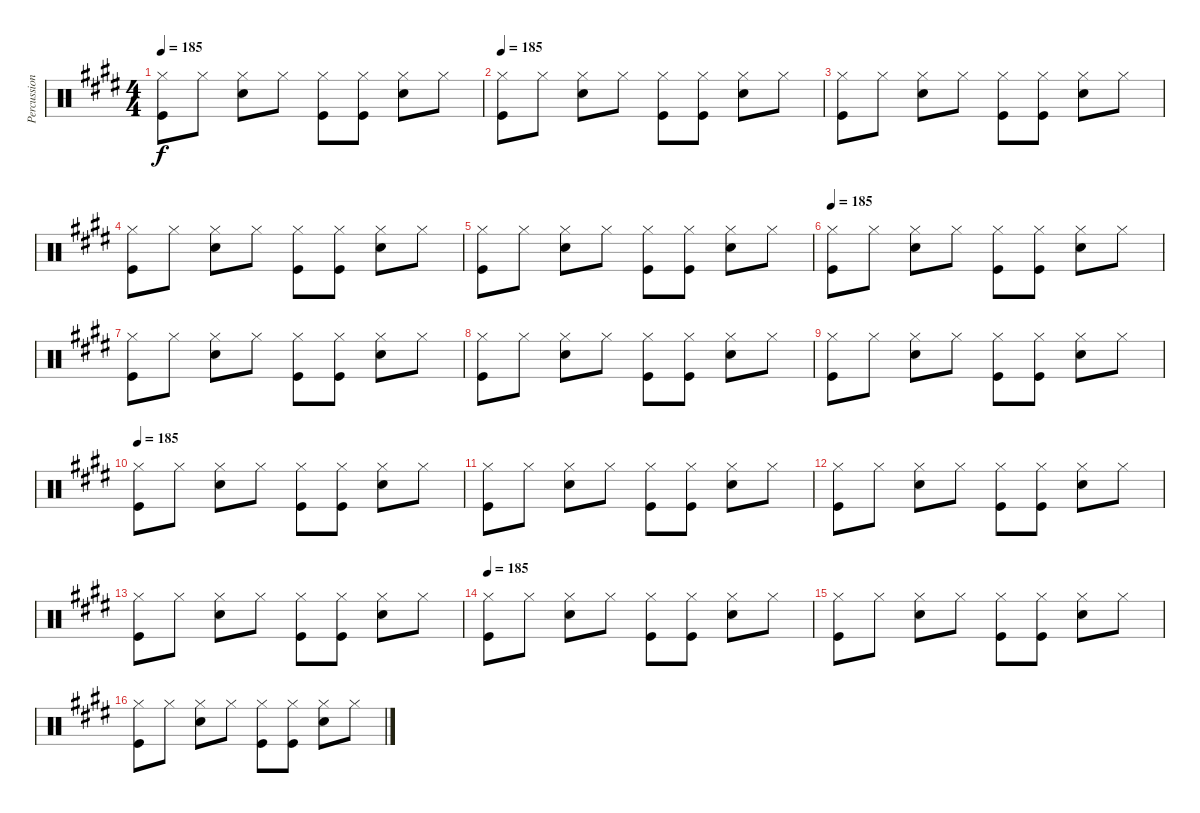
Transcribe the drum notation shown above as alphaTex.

\track ("Percussion" "Percussion") {instrument percussion}
\staff {score}
\articulation defaults
\ts (4 4)
\tempo 185
\clef neutral
\ks e
("Hi-Hat (closed)" "Kick (hit)").8{dy f} "Hi-Hat (closed)".8 ("Hi-Hat (closed)" "Snare (hit) 2").8 "Hi-Hat (closed)".8 ("Hi-Hat (closed)" "Kick (hit)").8 ("Hi-Hat (closed)" "Kick (hit)").8 ("Hi-Hat (closed)" "Snare (hit) 2").8 "Hi-Hat (closed)".8 |
\tempo 185
("Hi-Hat (closed)" "Kick (hit)").8 "Hi-Hat (closed)".8 ("Hi-Hat (closed)" "Snare (hit) 2").8 "Hi-Hat (closed)".8 ("Hi-Hat (closed)" "Kick (hit)").8 ("Hi-Hat (closed)" "Kick (hit)").8 ("Hi-Hat (closed)" "Snare (hit) 2").8 "Hi-Hat (closed)".8 |
("Hi-Hat (closed)" "Kick (hit)").8 "Hi-Hat (closed)".8 ("Hi-Hat (closed)" "Snare (hit) 2").8 "Hi-Hat (closed)".8 ("Hi-Hat (closed)" "Kick (hit)").8 ("Hi-Hat (closed)" "Kick (hit)").8 ("Hi-Hat (closed)" "Snare (hit) 2").8 "Hi-Hat (closed)".8 |
("Hi-Hat (closed)" "Kick (hit)").8 "Hi-Hat (closed)".8 ("Hi-Hat (closed)" "Snare (hit) 2").8 "Hi-Hat (closed)".8 ("Hi-Hat (closed)" "Kick (hit)").8 ("Hi-Hat (closed)" "Kick (hit)").8 ("Hi-Hat (closed)" "Snare (hit) 2").8 "Hi-Hat (closed)".8 |
("Hi-Hat (closed)" "Kick (hit)").8 "Hi-Hat (closed)".8 ("Hi-Hat (closed)" "Snare (hit) 2").8 "Hi-Hat (closed)".8 ("Hi-Hat (closed)" "Kick (hit)").8 ("Hi-Hat (closed)" "Kick (hit)").8 ("Hi-Hat (closed)" "Snare (hit) 2").8 "Hi-Hat (closed)".8 |
\tempo 185
("Hi-Hat (closed)" "Kick (hit)").8 "Hi-Hat (closed)".8 ("Hi-Hat (closed)" "Snare (hit) 2").8 "Hi-Hat (closed)".8 ("Hi-Hat (closed)" "Kick (hit)").8 ("Hi-Hat (closed)" "Kick (hit)").8 ("Hi-Hat (closed)" "Snare (hit) 2").8 "Hi-Hat (closed)".8 |
("Hi-Hat (closed)" "Kick (hit)").8 "Hi-Hat (closed)".8 ("Hi-Hat (closed)" "Snare (hit) 2").8 "Hi-Hat (closed)".8 ("Hi-Hat (closed)" "Kick (hit)").8 ("Hi-Hat (closed)" "Kick (hit)").8 ("Hi-Hat (closed)" "Snare (hit) 2").8 "Hi-Hat (closed)".8 |
("Hi-Hat (closed)" "Kick (hit)").8 "Hi-Hat (closed)".8 ("Hi-Hat (closed)" "Snare (hit) 2").8 "Hi-Hat (closed)".8 ("Hi-Hat (closed)" "Kick (hit)").8 ("Hi-Hat (closed)" "Kick (hit)").8 ("Hi-Hat (closed)" "Snare (hit) 2").8 "Hi-Hat (closed)".8 |
("Hi-Hat (closed)" "Kick (hit)").8 "Hi-Hat (closed)".8 ("Hi-Hat (closed)" "Snare (hit) 2").8 "Hi-Hat (closed)".8 ("Hi-Hat (closed)" "Kick (hit)").8 ("Hi-Hat (closed)" "Kick (hit)").8 ("Hi-Hat (closed)" "Snare (hit) 2").8 "Hi-Hat (closed)".8 |
\tempo 185
("Hi-Hat (closed)" "Kick (hit)").8 "Hi-Hat (closed)".8 ("Hi-Hat (closed)" "Snare (hit) 2").8 "Hi-Hat (closed)".8 ("Hi-Hat (closed)" "Kick (hit)").8 ("Hi-Hat (closed)" "Kick (hit)").8 ("Hi-Hat (closed)" "Snare (hit) 2").8 "Hi-Hat (closed)".8 |
("Hi-Hat (closed)" "Kick (hit)").8 "Hi-Hat (closed)".8 ("Hi-Hat (closed)" "Snare (hit) 2").8 "Hi-Hat (closed)".8 ("Hi-Hat (closed)" "Kick (hit)").8 ("Hi-Hat (closed)" "Kick (hit)").8 ("Hi-Hat (closed)" "Snare (hit) 2").8 "Hi-Hat (closed)".8 |
("Hi-Hat (closed)" "Kick (hit)").8 "Hi-Hat (closed)".8 ("Hi-Hat (closed)" "Snare (hit) 2").8 "Hi-Hat (closed)".8 ("Hi-Hat (closed)" "Kick (hit)").8 ("Hi-Hat (closed)" "Kick (hit)").8 ("Hi-Hat (closed)" "Snare (hit) 2").8 "Hi-Hat (closed)".8 |
("Hi-Hat (closed)" "Kick (hit)").8 "Hi-Hat (closed)".8 ("Hi-Hat (closed)" "Snare (hit) 2").8 "Hi-Hat (closed)".8 ("Hi-Hat (closed)" "Kick (hit)").8 ("Hi-Hat (closed)" "Kick (hit)").8 ("Hi-Hat (closed)" "Snare (hit) 2").8 "Hi-Hat (closed)".8 |
\tempo 185
("Hi-Hat (closed)" "Kick (hit)").8 "Hi-Hat (closed)".8 ("Hi-Hat (closed)" "Snare (hit) 2").8 "Hi-Hat (closed)".8 ("Hi-Hat (closed)" "Kick (hit)").8 ("Hi-Hat (closed)" "Kick (hit)").8 ("Hi-Hat (closed)" "Snare (hit) 2").8 "Hi-Hat (closed)".8 |
("Hi-Hat (closed)" "Kick (hit)").8 "Hi-Hat (closed)".8 ("Hi-Hat (closed)" "Snare (hit) 2").8 "Hi-Hat (closed)".8 ("Hi-Hat (closed)" "Kick (hit)").8 ("Hi-Hat (closed)" "Kick (hit)").8 ("Hi-Hat (closed)" "Snare (hit) 2").8 "Hi-Hat (closed)".8 |
("Hi-Hat (closed)" "Kick (hit)").8 "Hi-Hat (closed)".8 ("Hi-Hat (closed)" "Snare (hit) 2").8 "Hi-Hat (closed)".8 ("Hi-Hat (closed)" "Kick (hit)").8 ("Hi-Hat (closed)" "Kick (hit)").8 ("Hi-Hat (closed)" "Snare (hit) 2").8 "Hi-Hat (closed)".8
